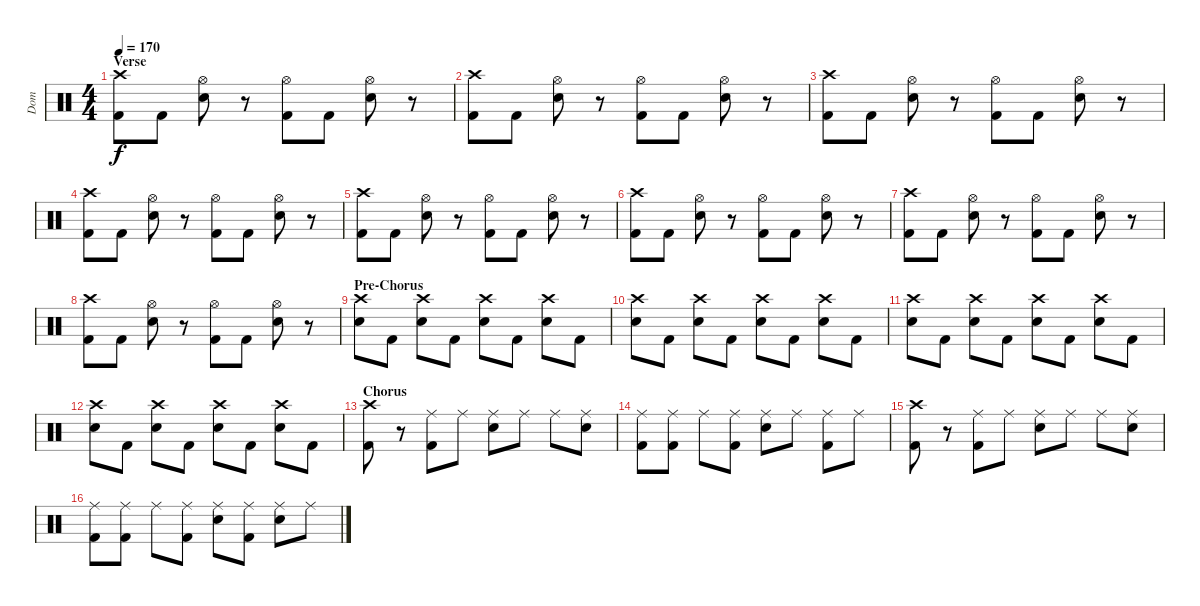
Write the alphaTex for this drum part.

\track ("Dom" "Dom") {instrument percussion}
\staff {score}
\articulation defaults
\ts (4 4)
\section ("" "Verse")
\tempo 170
\clef neutral
\ks c
("Crash high (hit)" "Kick (hit) 2").8{dy f} "Kick (hit) 2".8 ("Hi-Hat (open)" "Electric Snare (hit)").8 r.8 ("Hi-Hat (open)" "Kick (hit) 2").8 "Kick (hit) 2".8 ("Hi-Hat (open)" "Electric Snare (hit)").8 r.8 |
("Crash high (hit)" "Kick (hit) 2").8 "Kick (hit) 2".8 ("Hi-Hat (open)" "Electric Snare (hit)").8 r.8 ("Hi-Hat (open)" "Kick (hit) 2").8 "Kick (hit) 2".8 ("Hi-Hat (open)" "Electric Snare (hit)").8 r.8 |
("Crash high (hit)" "Kick (hit) 2").8 "Kick (hit) 2".8 ("Hi-Hat (open)" "Electric Snare (hit)").8 r.8 ("Hi-Hat (open)" "Kick (hit) 2").8 "Kick (hit) 2".8 ("Hi-Hat (open)" "Electric Snare (hit)").8 r.8 |
("Crash high (hit)" "Kick (hit) 2").8 "Kick (hit) 2".8 ("Hi-Hat (open)" "Electric Snare (hit)").8 r.8 ("Hi-Hat (open)" "Kick (hit) 2").8 "Kick (hit) 2".8 ("Hi-Hat (open)" "Electric Snare (hit)").8 r.8 |
("Crash high (hit)" "Kick (hit) 2").8 "Kick (hit) 2".8 ("Hi-Hat (open)" "Electric Snare (hit)").8 r.8 ("Hi-Hat (open)" "Kick (hit) 2").8 "Kick (hit) 2".8 ("Hi-Hat (open)" "Electric Snare (hit)").8 r.8 |
("Crash high (hit)" "Kick (hit) 2").8 "Kick (hit) 2".8 ("Hi-Hat (open)" "Electric Snare (hit)").8 r.8 ("Hi-Hat (open)" "Kick (hit) 2").8 "Kick (hit) 2".8 ("Hi-Hat (open)" "Electric Snare (hit)").8 r.8 |
("Crash high (hit)" "Kick (hit) 2").8 "Kick (hit) 2".8 ("Hi-Hat (open)" "Electric Snare (hit)").8 r.8 ("Hi-Hat (open)" "Kick (hit) 2").8 "Kick (hit) 2".8 ("Hi-Hat (open)" "Electric Snare (hit)").8 r.8 |
("Crash high (hit)" "Kick (hit) 2").8 "Kick (hit) 2".8 ("Hi-Hat (open)" "Electric Snare (hit)").8 r.8 ("Hi-Hat (open)" "Kick (hit) 2").8 "Kick (hit) 2".8 ("Hi-Hat (open)" "Electric Snare (hit)").8 r.8 |
\section ("" "Pre-Chorus")
("Crash high (hit)" "Electric Snare (hit)").8 "Kick (hit) 2".8 ("Crash high (hit)" "Electric Snare (hit)").8 "Kick (hit) 2".8 ("Crash high (hit)" "Electric Snare (hit)").8 "Kick (hit) 2".8 ("Crash high (hit)" "Electric Snare (hit)").8 "Kick (hit) 2".8 |
("Crash high (hit)" "Electric Snare (hit)").8 "Kick (hit) 2".8 ("Crash high (hit)" "Electric Snare (hit)").8 "Kick (hit) 2".8 ("Crash high (hit)" "Electric Snare (hit)").8 "Kick (hit) 2".8 ("Crash high (hit)" "Electric Snare (hit)").8 "Kick (hit) 2".8 |
("Crash high (hit)" "Electric Snare (hit)").8 "Kick (hit) 2".8 ("Crash high (hit)" "Electric Snare (hit)").8 "Kick (hit) 2".8 ("Crash high (hit)" "Electric Snare (hit)").8 "Kick (hit) 2".8 ("Crash high (hit)" "Electric Snare (hit)").8 "Kick (hit) 2".8 |
("Crash high (hit)" "Electric Snare (hit)").8 "Kick (hit) 2".8 ("Crash high (hit)" "Electric Snare (hit)").8 "Kick (hit) 2".8 ("Crash high (hit)" "Electric Snare (hit)").8 "Kick (hit) 2".8 ("Crash high (hit)" "Electric Snare (hit)").8 "Kick (hit) 2".8 |
\section ("" "Chorus")
("Crash high (hit)" "Kick (hit) 2").8 r.8 ("Ride (middle)" "Kick (hit) 2").8 "Ride (middle)".8 ("Ride (middle)" "Electric Snare (hit)").8 "Ride (middle)".8 "Ride (middle)".8 ("Ride (middle)" "Electric Snare (hit)").8 |
("Ride (middle)" "Kick (hit) 2").8 ("Ride (middle)" "Kick (hit) 2").8 "Ride (middle)".8 ("Ride (middle)" "Kick (hit) 2").8 ("Ride (middle)" "Electric Snare (hit)").8 "Ride (middle)".8 ("Ride (middle)" "Kick (hit) 2").8 "Ride (middle)".8 |
("Crash high (hit)" "Kick (hit) 2").8 r.8 ("Ride (middle)" "Kick (hit) 2").8 "Ride (middle)".8 ("Ride (middle)" "Electric Snare (hit)").8 "Ride (middle)".8 "Ride (middle)".8 ("Ride (middle)" "Electric Snare (hit)").8 |
("Ride (middle)" "Kick (hit) 2").8 ("Ride (middle)" "Kick (hit) 2").8 "Ride (middle)".8 ("Ride (middle)" "Kick (hit) 2").8 ("Ride (middle)" "Electric Snare (hit)").8 ("Ride (middle)" "Kick (hit) 2").8 ("Ride (middle)" "Electric Snare (hit)").8 "Ride (middle)".8
